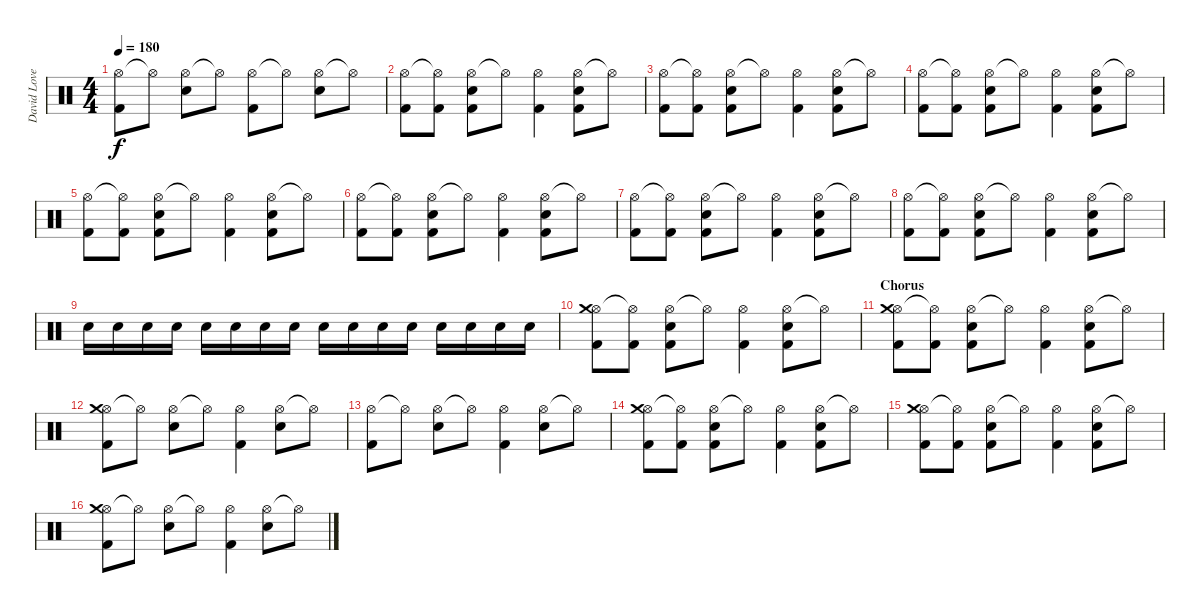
\track ("David Lovering" "David Love") {instrument percussion}
\staff {score}
\articulation defaults
\ts (4 4)
\tempo 180
\clef neutral
\ks c
("Hi-Hat (open)" "Kick (hit) 2").8{dy f} "Hi-Hat (open)"{t}.8 ("Hi-Hat (open)" "Snare (hit) 2").8 "Hi-Hat (open)"{t}.8 ("Hi-Hat (open)" "Kick (hit) 2").8 "Hi-Hat (open)"{t}.8 ("Hi-Hat (open)" "Snare (hit) 2").8 "Hi-Hat (open)"{t}.8 |
("Hi-Hat (open)" "Kick (hit) 2").8 ("Hi-Hat (open)"{t} "Kick (hit) 2").8 ("Hi-Hat (open)" "Snare (hit) 2" "Kick (hit) 2").8 "Hi-Hat (open)"{t}.8 ("Hi-Hat (open)" "Kick (hit) 2").4 ("Hi-Hat (open)" "Snare (hit) 2" "Kick (hit) 2").8 "Hi-Hat (open)"{t}.8 |
("Hi-Hat (open)" "Kick (hit) 2").8 ("Hi-Hat (open)"{t} "Kick (hit) 2").8 ("Hi-Hat (open)" "Snare (hit) 2" "Kick (hit) 2").8 "Hi-Hat (open)"{t}.8 ("Hi-Hat (open)" "Kick (hit) 2").4 ("Hi-Hat (open)" "Snare (hit) 2" "Kick (hit) 2").8 "Hi-Hat (open)"{t}.8 |
("Hi-Hat (open)" "Kick (hit) 2").8 ("Hi-Hat (open)"{t} "Kick (hit) 2").8 ("Hi-Hat (open)" "Snare (hit) 2" "Kick (hit) 2").8 "Hi-Hat (open)"{t}.8 ("Hi-Hat (open)" "Kick (hit) 2").4 ("Hi-Hat (open)" "Snare (hit) 2" "Kick (hit) 2").8 "Hi-Hat (open)"{t}.8 |
("Hi-Hat (open)" "Kick (hit) 2").8 ("Hi-Hat (open)"{t} "Kick (hit) 2").8 ("Hi-Hat (open)" "Snare (hit) 2" "Kick (hit) 2").8 "Hi-Hat (open)"{t}.8 ("Hi-Hat (open)" "Kick (hit) 2").4 ("Hi-Hat (open)" "Snare (hit) 2" "Kick (hit) 2").8 "Hi-Hat (open)"{t}.8 |
("Hi-Hat (open)" "Kick (hit) 2").8 ("Hi-Hat (open)"{t} "Kick (hit) 2").8 ("Hi-Hat (open)" "Snare (hit) 2" "Kick (hit) 2").8 "Hi-Hat (open)"{t}.8 ("Hi-Hat (open)" "Kick (hit) 2").4 ("Hi-Hat (open)" "Snare (hit) 2" "Kick (hit) 2").8 "Hi-Hat (open)"{t}.8 |
("Hi-Hat (open)" "Kick (hit) 2").8 ("Hi-Hat (open)"{t} "Kick (hit) 2").8 ("Hi-Hat (open)" "Snare (hit) 2" "Kick (hit) 2").8 "Hi-Hat (open)"{t}.8 ("Hi-Hat (open)" "Kick (hit) 2").4 ("Hi-Hat (open)" "Snare (hit) 2" "Kick (hit) 2").8 "Hi-Hat (open)"{t}.8 |
("Hi-Hat (open)" "Kick (hit) 2").8 ("Hi-Hat (open)"{t} "Kick (hit) 2").8 ("Hi-Hat (open)" "Snare (hit) 2" "Kick (hit) 2").8 "Hi-Hat (open)"{t}.8 ("Hi-Hat (open)" "Kick (hit) 2").4 ("Hi-Hat (open)" "Snare (hit) 2" "Kick (hit) 2").8 "Hi-Hat (open)"{t}.8 |
"Snare (hit) 2".16 "Snare (hit) 2".16 "Snare (hit) 2".16 "Snare (hit) 2".16 "Snare (hit) 2".16 "Snare (hit) 2".16 "Snare (hit) 2".16 "Snare (hit) 2".16 "Snare (hit) 2".16 "Snare (hit) 2".16 "Snare (hit) 2".16 "Snare (hit) 2".16 "Snare (hit) 2".16 "Snare (hit) 2".16 "Snare (hit) 2".16 "Snare (hit) 2".16 |
("Hi-Hat (open)" "Crash medium (hit)" "Kick (hit) 2").8 ("Hi-Hat (open)"{t} "Kick (hit) 2").8 ("Hi-Hat (open)" "Snare (hit) 2" "Kick (hit) 2").8 "Hi-Hat (open)"{t}.8 ("Hi-Hat (open)" "Kick (hit) 2").4 ("Hi-Hat (open)" "Snare (hit) 2" "Kick (hit) 2").8 "Hi-Hat (open)"{t}.8 |
\section ("" "Chorus")
("Hi-Hat (open)" "Crash medium (hit)" "Kick (hit) 2").8 ("Hi-Hat (open)"{t} "Kick (hit) 2").8 ("Hi-Hat (open)" "Snare (hit) 2" "Kick (hit) 2").8 "Hi-Hat (open)"{t}.8 ("Hi-Hat (open)" "Kick (hit) 2").4 ("Hi-Hat (open)" "Snare (hit) 2" "Kick (hit) 2").8 "Hi-Hat (open)"{t}.8 |
("Hi-Hat (open)" "Crash medium (hit)" "Kick (hit) 2").8 "Hi-Hat (open)"{t}.8 ("Hi-Hat (open)" "Snare (hit) 2").8 "Hi-Hat (open)"{t}.8 ("Hi-Hat (open)" "Kick (hit) 2").4 ("Hi-Hat (open)" "Snare (hit) 2").8 "Hi-Hat (open)"{t}.8 |
("Hi-Hat (open)" "Kick (hit) 2").8 "Hi-Hat (open)"{t}.8 ("Hi-Hat (open)" "Snare (hit) 2").8 "Hi-Hat (open)"{t}.8 ("Hi-Hat (open)" "Kick (hit) 2").4 ("Hi-Hat (open)" "Snare (hit) 2").8 "Hi-Hat (open)"{t}.8 |
("Hi-Hat (open)" "Crash medium (hit)" "Kick (hit) 2").8 ("Hi-Hat (open)"{t} "Kick (hit) 2").8 ("Hi-Hat (open)" "Snare (hit) 2" "Kick (hit) 2").8 "Hi-Hat (open)"{t}.8 ("Hi-Hat (open)" "Kick (hit) 2").4 ("Hi-Hat (open)" "Snare (hit) 2" "Kick (hit) 2").8 "Hi-Hat (open)"{t}.8 |
("Hi-Hat (open)" "Crash medium (hit)" "Kick (hit) 2").8 ("Hi-Hat (open)"{t} "Kick (hit) 2").8 ("Hi-Hat (open)" "Snare (hit) 2" "Kick (hit) 2").8 "Hi-Hat (open)"{t}.8 ("Hi-Hat (open)" "Kick (hit) 2").4 ("Hi-Hat (open)" "Snare (hit) 2" "Kick (hit) 2").8 "Hi-Hat (open)"{t}.8 |
("Hi-Hat (open)" "Crash medium (hit)" "Kick (hit) 2").8 "Hi-Hat (open)"{t}.8 ("Hi-Hat (open)" "Snare (hit) 2").8 "Hi-Hat (open)"{t}.8 ("Hi-Hat (open)" "Kick (hit) 2").4 ("Hi-Hat (open)" "Snare (hit) 2").8 "Hi-Hat (open)"{t}.8
